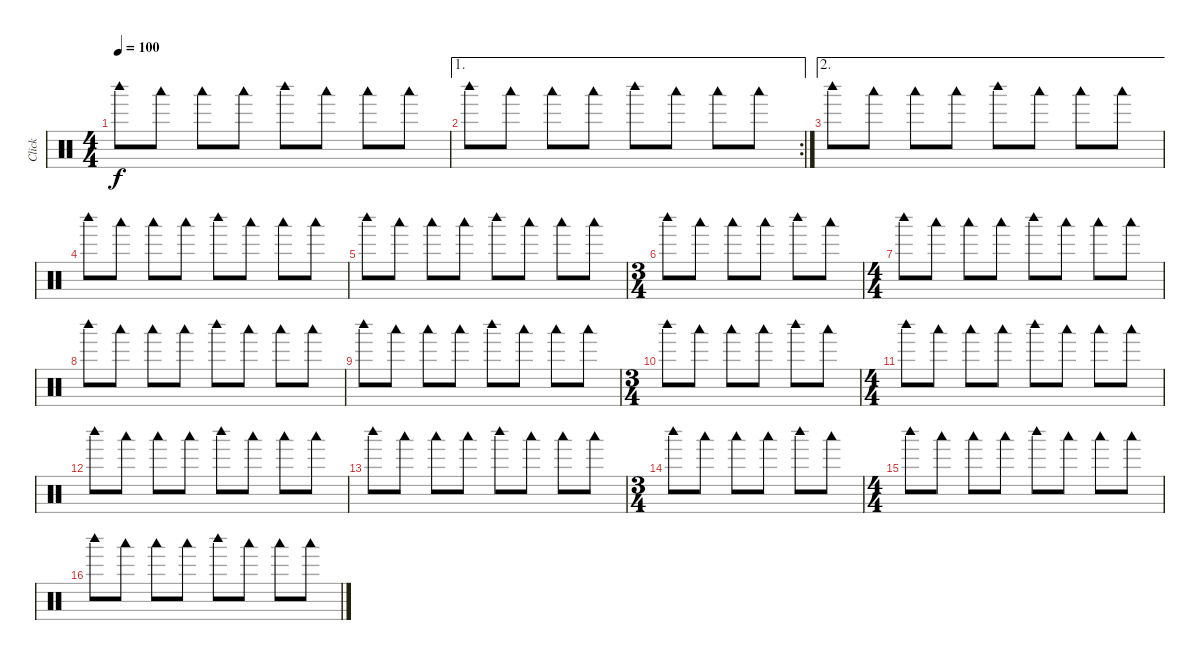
\track ("Click" "Click") {mute instrument percussion}
\staff {score}
\articulation defaults
\ts (4 4)
\tempo 100
\clef neutral
\ks c "Woodblock high (hit)".8{dy f} "Woodblock low (hit)".8 "Woodblock low (hit)".8 "Woodblock low (hit)".8 "Woodblock high (hit)".8 "Woodblock low (hit)".8 "Woodblock low (hit)".8 "Woodblock low (hit)".8
|
\ae 1
\rc 2 "Woodblock high (hit)".8 "Woodblock low (hit)".8 "Woodblock low (hit)".8 "Woodblock low (hit)".8 "Woodblock high (hit)".8 "Woodblock low (hit)".8 "Woodblock low (hit)".8 "Woodblock low (hit)".8
|
\ae 2 "Woodblock high (hit)".8 "Woodblock low (hit)".8 "Woodblock low (hit)".8 "Woodblock low (hit)".8 "Woodblock high (hit)".8 "Woodblock low (hit)".8 "Woodblock low (hit)".8 "Woodblock low (hit)".8
|
"Woodblock high (hit)".8 "Woodblock low (hit)".8 "Woodblock low (hit)".8 "Woodblock low (hit)".8 "Woodblock high (hit)".8 "Woodblock low (hit)".8 "Woodblock low (hit)".8 "Woodblock low (hit)".8 |
"Woodblock high (hit)".8 "Woodblock low (hit)".8 "Woodblock low (hit)".8 "Woodblock low (hit)".8 "Woodblock high (hit)".8 "Woodblock low (hit)".8 "Woodblock low (hit)".8 "Woodblock low (hit)".8 |
\ts (3 4)
"Woodblock high (hit)".8 "Woodblock low (hit)".8 "Woodblock low (hit)".8 "Woodblock low (hit)".8 "Woodblock high (hit)".8 "Woodblock low (hit)".8 |
\ts (4 4)
"Woodblock high (hit)".8 "Woodblock low (hit)".8 "Woodblock low (hit)".8 "Woodblock low (hit)".8 "Woodblock high (hit)".8 "Woodblock low (hit)".8 "Woodblock low (hit)".8 "Woodblock low (hit)".8 |
"Woodblock high (hit)".8 "Woodblock low (hit)".8 "Woodblock low (hit)".8 "Woodblock low (hit)".8 "Woodblock high (hit)".8 "Woodblock low (hit)".8 "Woodblock low (hit)".8 "Woodblock low (hit)".8 |
"Woodblock high (hit)".8 "Woodblock low (hit)".8 "Woodblock low (hit)".8 "Woodblock low (hit)".8 "Woodblock high (hit)".8 "Woodblock low (hit)".8 "Woodblock low (hit)".8 "Woodblock low (hit)".8 |
\ts (3 4)
"Woodblock high (hit)".8 "Woodblock low (hit)".8 "Woodblock low (hit)".8 "Woodblock low (hit)".8 "Woodblock high (hit)".8 "Woodblock low (hit)".8 |
\ts (4 4)
"Woodblock high (hit)".8 "Woodblock low (hit)".8 "Woodblock low (hit)".8 "Woodblock low (hit)".8 "Woodblock high (hit)".8 "Woodblock low (hit)".8 "Woodblock low (hit)".8 "Woodblock low (hit)".8 |
"Woodblock high (hit)".8 "Woodblock low (hit)".8 "Woodblock low (hit)".8 "Woodblock low (hit)".8 "Woodblock high (hit)".8 "Woodblock low (hit)".8 "Woodblock low (hit)".8 "Woodblock low (hit)".8 |
"Woodblock high (hit)".8 "Woodblock low (hit)".8 "Woodblock low (hit)".8 "Woodblock low (hit)".8 "Woodblock high (hit)".8 "Woodblock low (hit)".8 "Woodblock low (hit)".8 "Woodblock low (hit)".8 |
\ts (3 4)
"Woodblock high (hit)".8 "Woodblock low (hit)".8 "Woodblock low (hit)".8 "Woodblock low (hit)".8 "Woodblock high (hit)".8 "Woodblock low (hit)".8 |
\ts (4 4)
"Woodblock high (hit)".8 "Woodblock low (hit)".8 "Woodblock low (hit)".8 "Woodblock low (hit)".8 "Woodblock high (hit)".8 "Woodblock low (hit)".8 "Woodblock low (hit)".8 "Woodblock low (hit)".8 |
"Woodblock high (hit)".8 "Woodblock low (hit)".8 "Woodblock low (hit)".8 "Woodblock low (hit)".8 "Woodblock high (hit)".8 "Woodblock low (hit)".8 "Woodblock low (hit)".8 "Woodblock low (hit)".8
